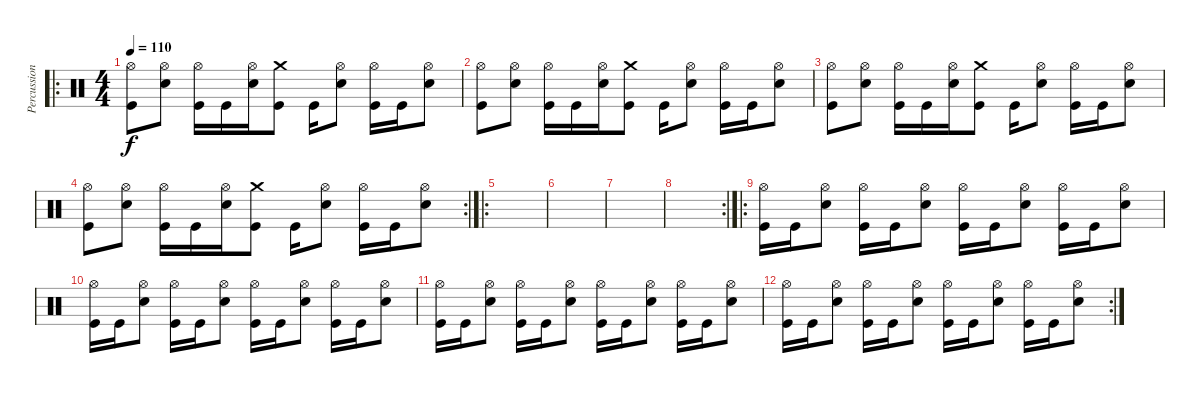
\track ("Percussion" "Percussion") {instrument percussion}
\staff {score}
\articulation defaults
\ro
\ts (4 4)
\tempo 110
\clef neutral
\ks c
("Hi-Hat (open)" "Kick (hit)").8{dy f} ("Hi-Hat (open)" "Snare (hit) 2").8 ("Hi-Hat (open)" "Kick (hit)").16 "Kick (hit)".16 ("Hi-Hat (open)" "Snare (hit) 2").16 ("Crash medium (hit)" "Kick (hit)").8 "Kick (hit)".16 ("Hi-Hat (open)" "Snare (hit) 2").8 ("Hi-Hat (open)" "Kick (hit)").16 "Kick (hit)".16 ("Hi-Hat (open)" "Snare (hit) 2").8 |
("Hi-Hat (open)" "Kick (hit)").8 ("Hi-Hat (open)" "Snare (hit) 2").8 ("Hi-Hat (open)" "Kick (hit)").16 "Kick (hit)".16 ("Hi-Hat (open)" "Snare (hit) 2").16 ("Crash medium (hit)" "Kick (hit)").8 "Kick (hit)".16 ("Hi-Hat (open)" "Snare (hit) 2").8 ("Hi-Hat (open)" "Kick (hit)").16 "Kick (hit)".16 ("Hi-Hat (open)" "Snare (hit) 2").8 |
("Hi-Hat (open)" "Kick (hit)").8 ("Hi-Hat (open)" "Snare (hit) 2").8 ("Hi-Hat (open)" "Kick (hit)").16 "Kick (hit)".16 ("Hi-Hat (open)" "Snare (hit) 2").16 ("Crash medium (hit)" "Kick (hit)").8 "Kick (hit)".16 ("Hi-Hat (open)" "Snare (hit) 2").8 ("Hi-Hat (open)" "Kick (hit)").16 "Kick (hit)".16 ("Hi-Hat (open)" "Snare (hit) 2").8 |
\rc 2
("Hi-Hat (open)" "Kick (hit)").8 ("Hi-Hat (open)" "Snare (hit) 2").8 ("Hi-Hat (open)" "Kick (hit)").16 "Kick (hit)".16 ("Hi-Hat (open)" "Snare (hit) 2").16 ("Crash medium (hit)" "Kick (hit)").8 "Kick (hit)".16 ("Hi-Hat (open)" "Snare (hit) 2").8 ("Hi-Hat (open)" "Kick (hit)").16 "Kick (hit)".16 ("Hi-Hat (open)" "Snare (hit) 2").8 |
\ro
|
|
|
\rc 2
|
\ro
("Hi-Hat (open)" "Kick (hit)").16 "Kick (hit)".16 ("Hi-Hat (open)" "Snare (hit) 2").8 ("Hi-Hat (open)" "Kick (hit)").16 "Kick (hit)".16 ("Hi-Hat (open)" "Snare (hit) 2").8 ("Hi-Hat (open)" "Kick (hit)").16 "Kick (hit)".16 ("Hi-Hat (open)" "Snare (hit) 2").8 ("Hi-Hat (open)" "Kick (hit)").16 "Kick (hit)".16 ("Hi-Hat (open)" "Snare (hit) 2").8 |
("Hi-Hat (open)" "Kick (hit)").16 "Kick (hit)".16 ("Hi-Hat (open)" "Snare (hit) 2").8 ("Hi-Hat (open)" "Kick (hit)").16 "Kick (hit)".16 ("Hi-Hat (open)" "Snare (hit) 2").8 ("Hi-Hat (open)" "Kick (hit)").16 "Kick (hit)".16 ("Hi-Hat (open)" "Snare (hit) 2").8 ("Hi-Hat (open)" "Kick (hit)").16 "Kick (hit)".16 ("Hi-Hat (open)" "Snare (hit) 2").8 |
("Hi-Hat (open)" "Kick (hit)").16 "Kick (hit)".16 ("Hi-Hat (open)" "Snare (hit) 2").8 ("Hi-Hat (open)" "Kick (hit)").16 "Kick (hit)".16 ("Hi-Hat (open)" "Snare (hit) 2").8 ("Hi-Hat (open)" "Kick (hit)").16 "Kick (hit)".16 ("Hi-Hat (open)" "Snare (hit) 2").8 ("Hi-Hat (open)" "Kick (hit)").16 "Kick (hit)".16 ("Hi-Hat (open)" "Snare (hit) 2").8 |
\rc 2
("Hi-Hat (open)" "Kick (hit)").16 "Kick (hit)".16 ("Hi-Hat (open)" "Snare (hit) 2").8 ("Hi-Hat (open)" "Kick (hit)").16 "Kick (hit)".16 ("Hi-Hat (open)" "Snare (hit) 2").8 ("Hi-Hat (open)" "Kick (hit)").16 "Kick (hit)".16 ("Hi-Hat (open)" "Snare (hit) 2").8 ("Hi-Hat (open)" "Kick (hit)").16 "Kick (hit)".16 ("Hi-Hat (open)" "Snare (hit) 2").8
